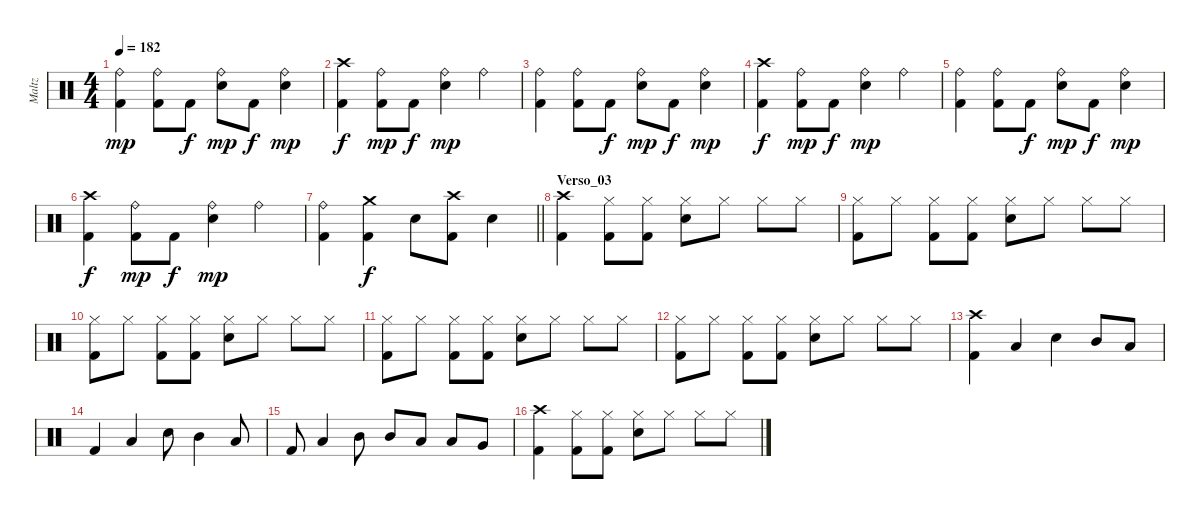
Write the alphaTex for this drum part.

\track ("Maltz" "Maltz") {instrument percussion}
\staff {score}
\articulation defaults
\ts (4 4)
\tempo 182
\clef neutral
\ks c
("Ride (bell)" "Kick (hit) 2").4{dy mp} ("Ride (bell)" "Kick (hit) 2").8 "Kick (hit) 2".8{dy f} ("Ride (bell)" "Electric Snare (hit)").8{dy mp} "Kick (hit) 2".8{dy f} ("Ride (bell)" "Electric Snare (hit)").4{dy mp} |
("Crash high (hit)" "Kick (hit) 2").4{dy f} ("Ride (bell)" "Kick (hit) 2").8{dy mp} "Kick (hit) 2".8{dy f} ("Ride (bell)" "Electric Snare (hit)").4{dy mp} "Ride (bell)".4 |
("Ride (bell)" "Kick (hit) 2").4 ("Ride (bell)" "Kick (hit) 2").8 "Kick (hit) 2".8{dy f} ("Ride (bell)" "Electric Snare (hit)").8{dy mp} "Kick (hit) 2".8{dy f} ("Ride (bell)" "Electric Snare (hit)").4{dy mp} |
("Crash high (hit)" "Kick (hit) 2").4{dy f} ("Ride (bell)" "Kick (hit) 2").8{dy mp} "Kick (hit) 2".8{dy f} ("Ride (bell)" "Electric Snare (hit)").4{dy mp} "Ride (bell)".4 |
("Ride (bell)" "Kick (hit) 2").4 ("Ride (bell)" "Kick (hit) 2").8 "Kick (hit) 2".8{dy f} ("Ride (bell)" "Electric Snare (hit)").8{dy mp} "Kick (hit) 2".8{dy f} ("Ride (bell)" "Electric Snare (hit)").4{dy mp} |
("Crash high (hit)" "Kick (hit) 2").4{dy f} ("Ride (bell)" "Kick (hit) 2").8{dy mp} "Kick (hit) 2".8{dy f} ("Ride (bell)" "Electric Snare (hit)").4{dy mp} "Ride (bell)".4 |
\barLineRight lightlight
("Ride (bell)" "Kick (hit) 2").4 ("Crash medium (hit)" "Kick (hit) 2").4{dy f} "Electric Snare (hit)".8 ("Crash high (hit)" "Kick (hit) 2").8 "Electric Snare (hit)".4 |
\section ("" "Verso_03")
("Crash high (hit)" "Kick (hit) 2").4 ("Hi-Hat (closed)" "Kick (hit) 2").8 ("Hi-Hat (closed)" "Kick (hit) 2").8 ("Hi-Hat (closed)" "Electric Snare (hit)").8 "Hi-Hat (closed)".8 "Hi-Hat (closed)".8 "Hi-Hat (closed)".8 |
("Hi-Hat (closed)" "Kick (hit) 2").8 "Hi-Hat (closed)".8 ("Hi-Hat (closed)" "Kick (hit) 2").8 ("Hi-Hat (closed)" "Kick (hit) 2").8 ("Hi-Hat (closed)" "Electric Snare (hit)").8 "Hi-Hat (closed)".8 "Hi-Hat (closed)".8 "Hi-Hat (closed)".8 |
("Hi-Hat (closed)" "Kick (hit) 2").8 "Hi-Hat (closed)".8 ("Hi-Hat (closed)" "Kick (hit) 2").8 ("Hi-Hat (closed)" "Kick (hit) 2").8 ("Hi-Hat (closed)" "Electric Snare (hit)").8 "Hi-Hat (closed)".8 "Hi-Hat (closed)".8 "Hi-Hat (closed)".8 |
("Hi-Hat (closed)" "Kick (hit) 2").8 "Hi-Hat (closed)".8 ("Hi-Hat (closed)" "Kick (hit) 2").8 ("Hi-Hat (closed)" "Kick (hit) 2").8 ("Hi-Hat (closed)" "Electric Snare (hit)").8 "Hi-Hat (closed)".8 "Hi-Hat (closed)".8 "Hi-Hat (closed)".8 |
("Hi-Hat (closed)" "Kick (hit) 2").8 "Hi-Hat (closed)".8 ("Hi-Hat (closed)" "Kick (hit) 2").8 ("Hi-Hat (closed)" "Kick (hit) 2").8 ("Hi-Hat (closed)" "Electric Snare (hit)").8 "Hi-Hat (closed)".8 "Hi-Hat (closed)".8 "Hi-Hat (closed)".8 |
("Crash high (hit)" "Kick (hit) 2").4 "Low Tom (hit)".4 "Electric Snare (hit)".4 "Mid Tom (hit)".8 "Low Tom (hit)".8 |
"Kick (hit) 2".4 "Low Tom (hit)".4 "Electric Snare (hit)".8 "Mid Tom (hit)".4 "Low Tom (hit)".8 |
"Kick (hit) 2".8 "Low Tom (hit)".4 "Mid Tom (hit)".8 "Mid Tom (hit)".8 "Low Tom (hit)".8 "Low Tom (hit)".8 "Very Low Tom (hit)".8 |
("Crash high (hit)" "Kick (hit) 2").4 ("Hi-Hat (closed)" "Kick (hit) 2").8 ("Hi-Hat (closed)" "Kick (hit) 2").8 ("Hi-Hat (closed)" "Electric Snare (hit)").8 "Hi-Hat (closed)".8 "Hi-Hat (closed)".8 "Hi-Hat (closed)".8
